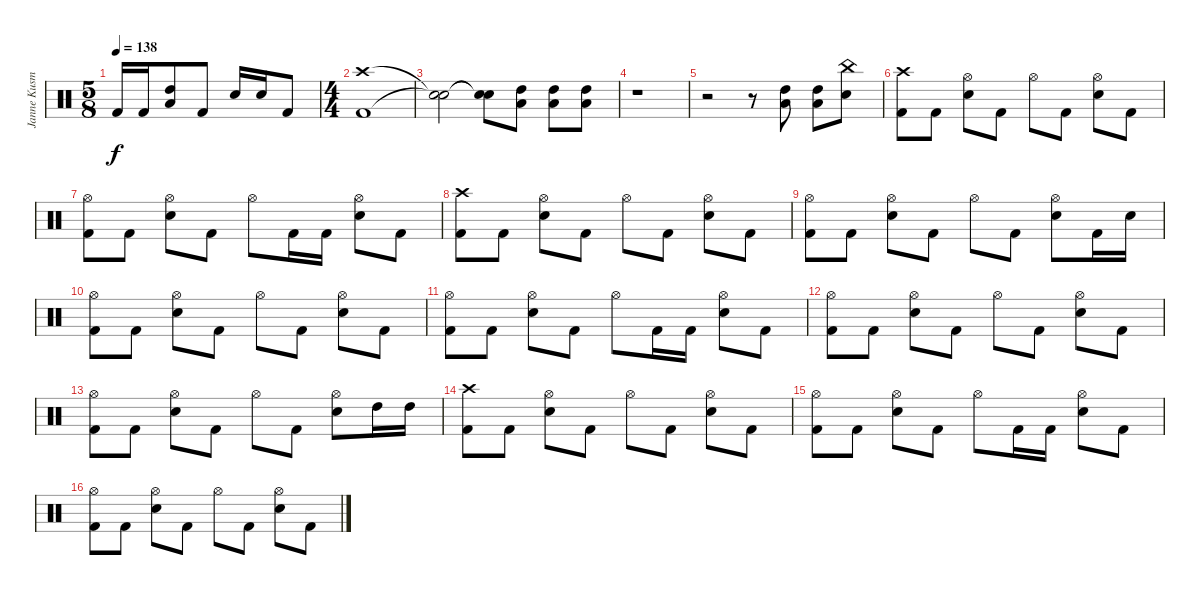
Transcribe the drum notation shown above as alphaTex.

\track ("Janne Kusmin" "Janne Kusm") {instrument percussion}
\staff {score}
\articulation defaults
\ts (5 8)
\tempo 138
\clef neutral
\ks c "Kick (hit) 2".16{dy f} "Kick (hit) 2".16
("High Tom (hit)" "Low Floor Tom (hit)").8 "Kick (hit) 2".8 "Electric Snare (hit)".16 "Electric Snare (hit)".16 "Kick (hit) 2".8 |
\ts (4 4)
("Crash high (hit)" "Kick (hit) 2").1 |
("Snare (hit)"{t} "Snare (hit)"{t}).2 ("Snare (hit)"{t} "Snare (hit)"{t}).8 ("High Tom (hit)" "Low Floor Tom (hit)").8 ("High Tom (hit)" "Low Floor Tom (hit)").8 ("High Tom (hit)" "Low Floor Tom (hit)").8 |
r.1 |
r.2 r.8 ("High Tom (hit)" "Low Floor Tom (hit)").8 ("High Tom (hit)" "Low Floor Tom (hit)").8 ("China (hit)" "Electric Snare (hit)").8 |
("Crash high (hit)" "Kick (hit) 2").8 "Kick (hit) 2".8 ("Hi-Hat (open)" "Electric Snare (hit)").8 "Kick (hit) 2".8 "Hi-Hat (open)".8 "Kick (hit) 2".8 ("Hi-Hat (open)" "Electric Snare (hit)").8 "Kick (hit) 2".8 |
("Hi-Hat (open)" "Kick (hit) 2").8 "Kick (hit) 2".8 ("Hi-Hat (open)" "Electric Snare (hit)").8 "Kick (hit) 2".8 "Hi-Hat (open)".8 "Kick (hit) 2".16 "Kick (hit) 2".16 ("Hi-Hat (open)" "Electric Snare (hit)").8 "Kick (hit) 2".8 |
("Crash high (hit)" "Kick (hit) 2").8 "Kick (hit) 2".8 ("Hi-Hat (open)" "Electric Snare (hit)").8 "Kick (hit) 2".8 "Hi-Hat (open)".8 "Kick (hit) 2".8 ("Hi-Hat (open)" "Electric Snare (hit)").8 "Kick (hit) 2".8 |
("Hi-Hat (open)" "Kick (hit) 2").8 "Kick (hit) 2".8 ("Hi-Hat (open)" "Electric Snare (hit)").8 "Kick (hit) 2".8 "Hi-Hat (open)".8 "Kick (hit) 2".8 ("Hi-Hat (open)" "Electric Snare (hit)").8 "Kick (hit) 2".16 "Electric Snare (hit)".16 |
("Hi-Hat (open)" "Kick (hit) 2").8 "Kick (hit) 2".8 ("Hi-Hat (open)" "Electric Snare (hit)").8 "Kick (hit) 2".8 "Hi-Hat (open)".8 "Kick (hit) 2".8 ("Hi-Hat (open)" "Electric Snare (hit)").8 "Kick (hit) 2".8 |
("Hi-Hat (open)" "Kick (hit) 2").8 "Kick (hit) 2".8 ("Hi-Hat (open)" "Electric Snare (hit)").8 "Kick (hit) 2".8 "Hi-Hat (open)".8 "Kick (hit) 2".16 "Kick (hit) 2".16 ("Hi-Hat (open)" "Electric Snare (hit)").8 "Kick (hit) 2".8 |
("Hi-Hat (open)" "Kick (hit) 2").8 "Kick (hit) 2".8 ("Hi-Hat (open)" "Electric Snare (hit)").8 "Kick (hit) 2".8 "Hi-Hat (open)".8 "Kick (hit) 2".8 ("Hi-Hat (open)" "Electric Snare (hit)").8 "Kick (hit) 2".8 |
("Hi-Hat (open)" "Kick (hit) 2").8 "Kick (hit) 2".8 ("Hi-Hat (open)" "Electric Snare (hit)").8 "Kick (hit) 2".8 "Hi-Hat (open)".8 "Kick (hit) 2".8 ("Hi-Hat (open)" "Electric Snare (hit)").8 "High Tom (hit)".16 "High Tom (hit)".16 |
("Crash high (hit)" "Kick (hit) 2").8 "Kick (hit) 2".8 ("Hi-Hat (open)" "Electric Snare (hit)").8 "Kick (hit) 2".8 "Hi-Hat (open)".8 "Kick (hit) 2".8 ("Hi-Hat (open)" "Electric Snare (hit)").8 "Kick (hit) 2".8 |
("Hi-Hat (open)" "Kick (hit) 2").8 "Kick (hit) 2".8 ("Hi-Hat (open)" "Electric Snare (hit)").8 "Kick (hit) 2".8 "Hi-Hat (open)".8 "Kick (hit) 2".16 "Kick (hit) 2".16 ("Hi-Hat (open)" "Electric Snare (hit)").8 "Kick (hit) 2".8 |
("Hi-Hat (open)" "Kick (hit) 2").8 "Kick (hit) 2".8 ("Hi-Hat (open)" "Electric Snare (hit)").8 "Kick (hit) 2".8 "Hi-Hat (open)".8 "Kick (hit) 2".8 ("Hi-Hat (open)" "Electric Snare (hit)").8 "Kick (hit) 2".8
